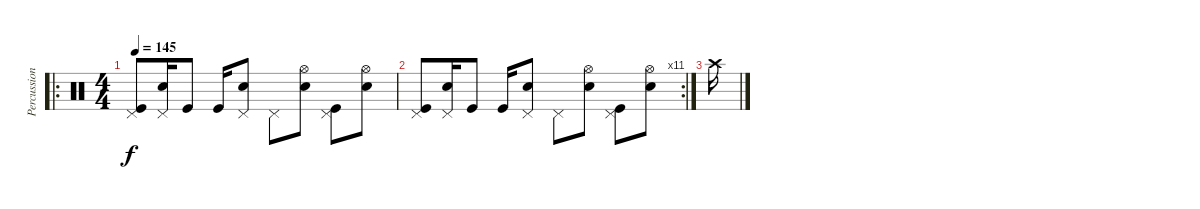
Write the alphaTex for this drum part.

\track ("Percussion" "Percussion") {instrument percussion}
\staff {score}
\articulation defaults
\ro
\ts (4 4)
\tempo 145
\clef neutral
\ks c
("Pedal Hi-Hat (hit)" "Kick (hit)").8{dy f} ("Pedal Hi-Hat (hit)" "Electric Snare (hit)").16 "Kick (hit)".8 "Kick (hit)".16 ("Pedal Hi-Hat (hit)" "Electric Snare (hit)").8 "Pedal Hi-Hat (hit)".8 ("Hi-Hat (open)" "Electric Snare (hit)").8 ("Pedal Hi-Hat (hit)" "Kick (hit)").8 ("Hi-Hat (open)" "Electric Snare (hit)").8 |
\rc 11
("Pedal Hi-Hat (hit)" "Kick (hit)").8 ("Pedal Hi-Hat (hit)" "Electric Snare (hit)").16 "Kick (hit)".8 "Kick (hit)".16 ("Pedal Hi-Hat (hit)" "Electric Snare (hit)").8 "Pedal Hi-Hat (hit)".8 ("Hi-Hat (open)" "Electric Snare (hit)").8 ("Pedal Hi-Hat (hit)" "Kick (hit)").8 ("Hi-Hat (open)" "Electric Snare (hit)").8 |
"Crash high (hit)".16
